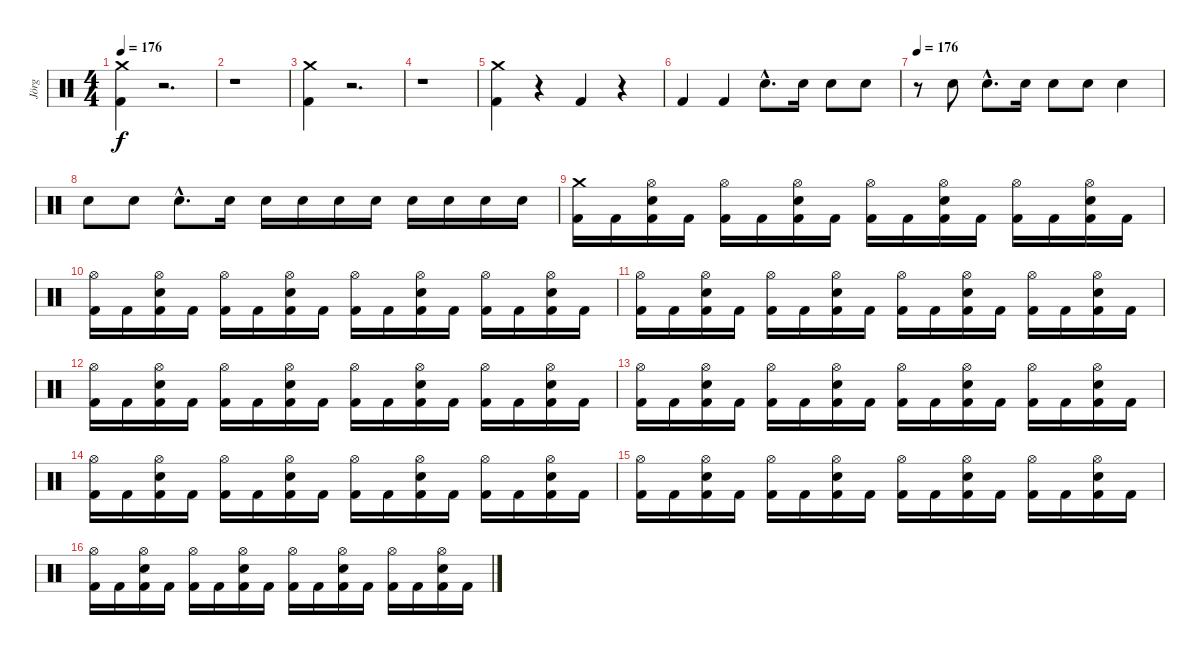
\track ("Jörg" "Jörg") {instrument percussion}
\staff {score}
\articulation defaults
\ts (4 4)
\tempo 176
\clef neutral
\ks c
("Kick (hit) 2" "Crash medium (hit)").4{dy f} r.2{d} |
r.1 |
("Crash medium (hit)" "Kick (hit) 2").4 r.2{d} |
r.1 |
("Kick (hit) 2" "Crash medium (hit)").4 r.4 "Kick (hit) 2".4 r.4 |
"Kick (hit) 2".4 "Kick (hit) 2".4 "Snare (hit) 2"{hac}.8{d} "Snare (hit) 2".16 "Snare (hit) 2".8 "Snare (hit) 2".8 |
\tempo 176
r.8 "Snare (hit) 2".8 "Snare (hit) 2"{hac}.8{d} "Snare (hit) 2".16 "Snare (hit) 2".8 "Snare (hit) 2".8 "Snare (hit) 2".4 |
"Snare (hit) 2".8 "Snare (hit) 2".8 "Snare (hit) 2"{hac}.8{d} "Snare (hit) 2".16 "Snare (hit) 2".16 "Snare (hit) 2".16 "Snare (hit) 2".16 "Snare (hit) 2".16 "Snare (hit) 2".16 "Snare (hit) 2".16 "Snare (hit) 2".16 "Snare (hit) 2".16 |
("Crash medium (hit)" "Kick (hit) 2").16 "Kick (hit) 2".16 ("Snare (hit) 2" "Hi-Hat (open)" "Kick (hit) 2").16 "Kick (hit) 2".16 ("Hi-Hat (open)" "Kick (hit) 2").16 "Kick (hit) 2".16 ("Snare (hit) 2" "Hi-Hat (open)" "Kick (hit) 2").16 "Kick (hit) 2".16 ("Hi-Hat (open)" "Kick (hit) 2").16 "Kick (hit) 2".16 ("Snare (hit) 2" "Hi-Hat (open)" "Kick (hit) 2").16 "Kick (hit) 2".16 ("Hi-Hat (open)" "Kick (hit) 2").16 "Kick (hit) 2".16 ("Snare (hit) 2" "Hi-Hat (open)" "Kick (hit) 2").16 "Kick (hit) 2".16 |
("Hi-Hat (open)" "Kick (hit) 2").16 "Kick (hit) 2".16 ("Snare (hit) 2" "Hi-Hat (open)" "Kick (hit) 2").16 "Kick (hit) 2".16 ("Hi-Hat (open)" "Kick (hit) 2").16 "Kick (hit) 2".16 ("Snare (hit) 2" "Hi-Hat (open)" "Kick (hit) 2").16 "Kick (hit) 2".16 ("Hi-Hat (open)" "Kick (hit) 2").16 "Kick (hit) 2".16 ("Snare (hit) 2" "Hi-Hat (open)" "Kick (hit) 2").16 "Kick (hit) 2".16 ("Hi-Hat (open)" "Kick (hit) 2").16 "Kick (hit) 2".16 ("Snare (hit) 2" "Hi-Hat (open)" "Kick (hit) 2").16 "Kick (hit) 2".16 |
("Hi-Hat (open)" "Kick (hit) 2").16 "Kick (hit) 2".16 ("Snare (hit) 2" "Hi-Hat (open)" "Kick (hit) 2").16 "Kick (hit) 2".16 ("Hi-Hat (open)" "Kick (hit) 2").16 "Kick (hit) 2".16 ("Snare (hit) 2" "Hi-Hat (open)" "Kick (hit) 2").16 "Kick (hit) 2".16 ("Hi-Hat (open)" "Kick (hit) 2").16 "Kick (hit) 2".16 ("Snare (hit) 2" "Hi-Hat (open)" "Kick (hit) 2").16 "Kick (hit) 2".16 ("Hi-Hat (open)" "Kick (hit) 2").16 "Kick (hit) 2".16 ("Snare (hit) 2" "Hi-Hat (open)" "Kick (hit) 2").16 "Kick (hit) 2".16 |
("Hi-Hat (open)" "Kick (hit) 2").16 "Kick (hit) 2".16 ("Snare (hit) 2" "Hi-Hat (open)" "Kick (hit) 2").16 "Kick (hit) 2".16 ("Hi-Hat (open)" "Kick (hit) 2").16 "Kick (hit) 2".16 ("Snare (hit) 2" "Hi-Hat (open)" "Kick (hit) 2").16 "Kick (hit) 2".16 ("Hi-Hat (open)" "Kick (hit) 2").16 "Kick (hit) 2".16 ("Snare (hit) 2" "Hi-Hat (open)" "Kick (hit) 2").16 "Kick (hit) 2".16 ("Hi-Hat (open)" "Kick (hit) 2").16 "Kick (hit) 2".16 ("Snare (hit) 2" "Hi-Hat (open)" "Kick (hit) 2").16 "Kick (hit) 2".16 |
("Hi-Hat (open)" "Kick (hit) 2").16 "Kick (hit) 2".16 ("Snare (hit) 2" "Hi-Hat (open)" "Kick (hit) 2").16 "Kick (hit) 2".16 ("Hi-Hat (open)" "Kick (hit) 2").16 "Kick (hit) 2".16 ("Snare (hit) 2" "Hi-Hat (open)" "Kick (hit) 2").16 "Kick (hit) 2".16 ("Hi-Hat (open)" "Kick (hit) 2").16 "Kick (hit) 2".16 ("Snare (hit) 2" "Hi-Hat (open)" "Kick (hit) 2").16 "Kick (hit) 2".16 ("Hi-Hat (open)" "Kick (hit) 2").16 "Kick (hit) 2".16 ("Snare (hit) 2" "Hi-Hat (open)" "Kick (hit) 2").16 "Kick (hit) 2".16 |
("Hi-Hat (open)" "Kick (hit) 2").16 "Kick (hit) 2".16 ("Snare (hit) 2" "Hi-Hat (open)" "Kick (hit) 2").16 "Kick (hit) 2".16 ("Hi-Hat (open)" "Kick (hit) 2").16 "Kick (hit) 2".16 ("Snare (hit) 2" "Hi-Hat (open)" "Kick (hit) 2").16 "Kick (hit) 2".16 ("Hi-Hat (open)" "Kick (hit) 2").16 "Kick (hit) 2".16 ("Snare (hit) 2" "Hi-Hat (open)" "Kick (hit) 2").16 "Kick (hit) 2".16 ("Hi-Hat (open)" "Kick (hit) 2").16 "Kick (hit) 2".16 ("Snare (hit) 2" "Hi-Hat (open)" "Kick (hit) 2").16 "Kick (hit) 2".16 |
("Hi-Hat (open)" "Kick (hit) 2").16 "Kick (hit) 2".16 ("Snare (hit) 2" "Hi-Hat (open)" "Kick (hit) 2").16 "Kick (hit) 2".16 ("Hi-Hat (open)" "Kick (hit) 2").16 "Kick (hit) 2".16 ("Snare (hit) 2" "Hi-Hat (open)" "Kick (hit) 2").16 "Kick (hit) 2".16 ("Hi-Hat (open)" "Kick (hit) 2").16 "Kick (hit) 2".16 ("Snare (hit) 2" "Hi-Hat (open)" "Kick (hit) 2").16 "Kick (hit) 2".16 ("Hi-Hat (open)" "Kick (hit) 2").16 "Kick (hit) 2".16 ("Snare (hit) 2" "Hi-Hat (open)" "Kick (hit) 2").16 "Kick (hit) 2".16 |
("Hi-Hat (open)" "Kick (hit) 2").16 "Kick (hit) 2".16 ("Snare (hit) 2" "Hi-Hat (open)" "Kick (hit) 2").16 "Kick (hit) 2".16 ("Hi-Hat (open)" "Kick (hit) 2").16 "Kick (hit) 2".16 ("Snare (hit) 2" "Hi-Hat (open)" "Kick (hit) 2").16 "Kick (hit) 2".16 ("Hi-Hat (open)" "Kick (hit) 2").16 "Kick (hit) 2".16 ("Snare (hit) 2" "Hi-Hat (open)" "Kick (hit) 2").16 "Kick (hit) 2".16 ("Hi-Hat (open)" "Kick (hit) 2").16 "Kick (hit) 2".16 ("Snare (hit) 2" "Hi-Hat (open)" "Kick (hit) 2").16 "Kick (hit) 2".16
